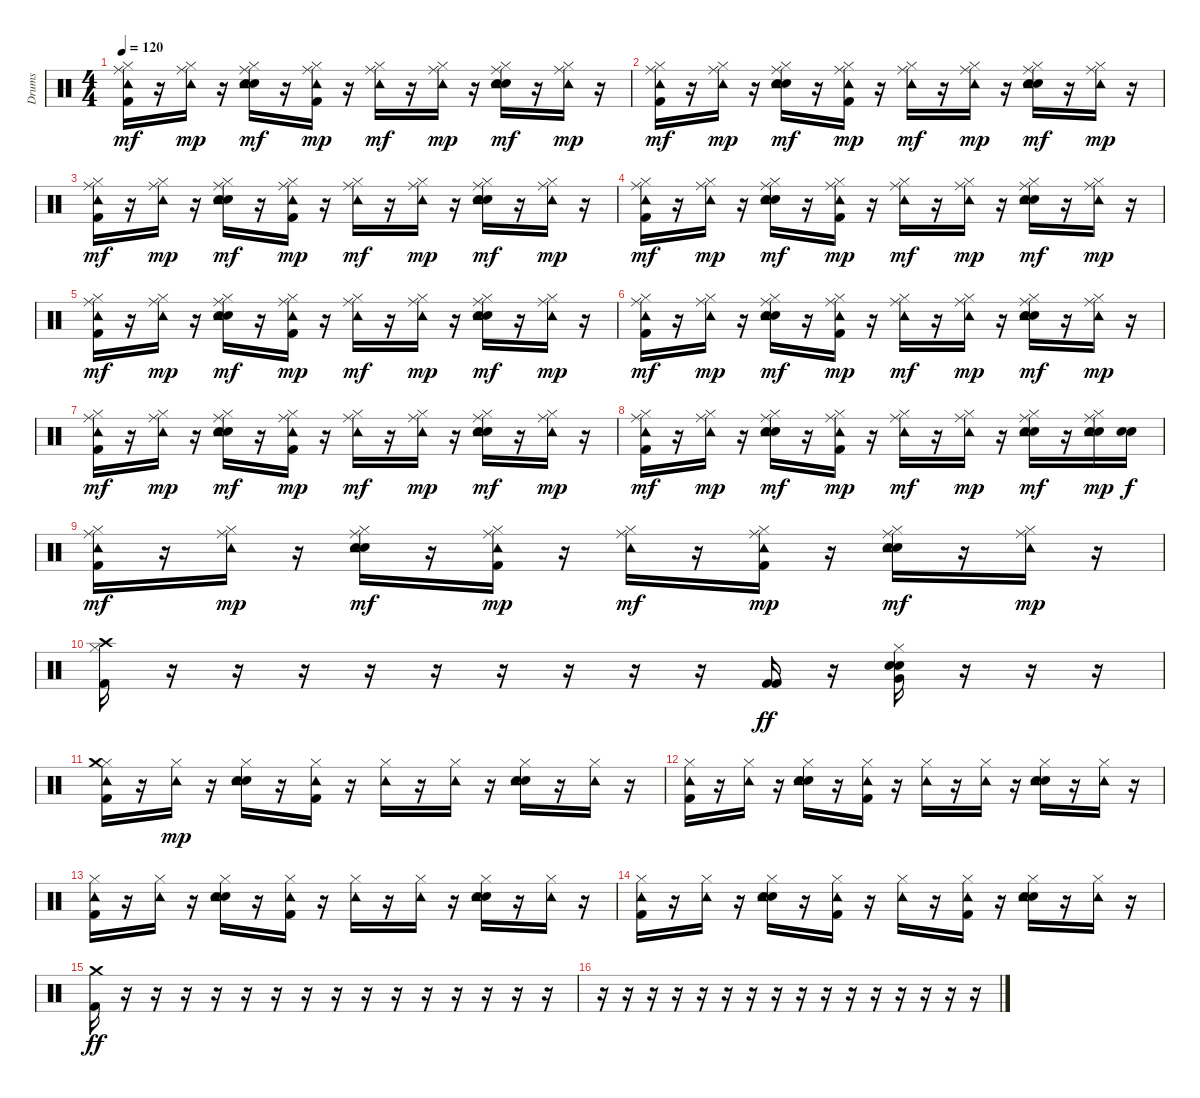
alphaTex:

\track ("Drums" "Drums") {instrument percussion}
\staff {score}
\articulation defaults
\ts (4 4)
\tempo 120
\clef neutral
\ks c
("Hi-Hat (closed)" "Ride (middle)" "Tambourine (hit)" "Kick (hit) 2").16{dy mf} r.16 ("Hi-Hat (closed)" "Ride (middle)" "Tambourine (hit)").16{dy mp} r.16 ("Hi-Hat (closed)" "Ride (middle)" "Snare (hit) 2" "Electric Snare (hit)" "Tambourine (hit)").16{dy mf} r.16 ("Hi-Hat (closed)" "Ride (middle)" "Tambourine (hit)" "Kick (hit) 2").16{dy mp} r.16 ("Hi-Hat (closed)" "Ride (middle)" "Tambourine (hit)").16{dy mf} r.16 ("Hi-Hat (closed)" "Ride (middle)" "Tambourine (hit)").16{dy mp} r.16 ("Hi-Hat (closed)" "Ride (middle)" "Snare (hit) 2" "Electric Snare (hit)" "Tambourine (hit)").16{dy mf} r.16 ("Hi-Hat (closed)" "Ride (middle)" "Tambourine (hit)").16{dy mp} r.16 |
("Hi-Hat (closed)" "Ride (middle)" "Tambourine (hit)" "Kick (hit) 2").16{dy mf} r.16 ("Hi-Hat (closed)" "Ride (middle)" "Tambourine (hit)").16{dy mp} r.16 ("Hi-Hat (closed)" "Ride (middle)" "Snare (hit) 2" "Electric Snare (hit)" "Tambourine (hit)").16{dy mf} r.16 ("Hi-Hat (closed)" "Ride (middle)" "Tambourine (hit)" "Kick (hit) 2").16{dy mp} r.16 ("Hi-Hat (closed)" "Ride (middle)" "Tambourine (hit)").16{dy mf} r.16 ("Hi-Hat (closed)" "Ride (middle)" "Tambourine (hit)").16{dy mp} r.16 ("Hi-Hat (closed)" "Ride (middle)" "Snare (hit) 2" "Electric Snare (hit)" "Tambourine (hit)").16{dy mf} r.16 ("Hi-Hat (closed)" "Ride (middle)" "Tambourine (hit)").16{dy mp} r.16 |
("Hi-Hat (closed)" "Ride (middle)" "Tambourine (hit)" "Kick (hit) 2").16{dy mf} r.16 ("Hi-Hat (closed)" "Ride (middle)" "Tambourine (hit)").16{dy mp} r.16 ("Hi-Hat (closed)" "Ride (middle)" "Snare (hit) 2" "Electric Snare (hit)" "Tambourine (hit)").16{dy mf} r.16 ("Hi-Hat (closed)" "Ride (middle)" "Tambourine (hit)" "Kick (hit) 2").16{dy mp} r.16 ("Hi-Hat (closed)" "Ride (middle)" "Tambourine (hit)").16{dy mf} r.16 ("Hi-Hat (closed)" "Ride (middle)" "Tambourine (hit)").16{dy mp} r.16 ("Hi-Hat (closed)" "Ride (middle)" "Snare (hit) 2" "Electric Snare (hit)" "Tambourine (hit)").16{dy mf} r.16 ("Hi-Hat (closed)" "Ride (middle)" "Tambourine (hit)").16{dy mp} r.16 |
("Hi-Hat (closed)" "Ride (middle)" "Tambourine (hit)" "Kick (hit) 2").16{dy mf} r.16 ("Hi-Hat (closed)" "Ride (middle)" "Tambourine (hit)").16{dy mp} r.16 ("Hi-Hat (closed)" "Ride (middle)" "Snare (hit) 2" "Electric Snare (hit)" "Tambourine (hit)").16{dy mf} r.16 ("Hi-Hat (closed)" "Ride (middle)" "Tambourine (hit)" "Kick (hit) 2").16{dy mp} r.16 ("Hi-Hat (closed)" "Ride (middle)" "Tambourine (hit)").16{dy mf} r.16 ("Hi-Hat (closed)" "Ride (middle)" "Tambourine (hit)").16{dy mp} r.16 ("Hi-Hat (closed)" "Ride (middle)" "Snare (hit) 2" "Electric Snare (hit)" "Tambourine (hit)").16{dy mf} r.16 ("Hi-Hat (closed)" "Ride (middle)" "Tambourine (hit)").16{dy mp} r.16 |
("Hi-Hat (closed)" "Ride (middle)" "Tambourine (hit)" "Kick (hit) 2").16{dy mf} r.16 ("Hi-Hat (closed)" "Ride (middle)" "Tambourine (hit)").16{dy mp} r.16 ("Hi-Hat (closed)" "Ride (middle)" "Snare (hit) 2" "Electric Snare (hit)" "Tambourine (hit)").16{dy mf} r.16 ("Hi-Hat (closed)" "Ride (middle)" "Tambourine (hit)" "Kick (hit) 2").16{dy mp} r.16 ("Hi-Hat (closed)" "Ride (middle)" "Tambourine (hit)").16{dy mf} r.16 ("Hi-Hat (closed)" "Ride (middle)" "Tambourine (hit)").16{dy mp} r.16 ("Hi-Hat (closed)" "Ride (middle)" "Snare (hit) 2" "Electric Snare (hit)" "Tambourine (hit)").16{dy mf} r.16 ("Hi-Hat (closed)" "Ride (middle)" "Tambourine (hit)").16{dy mp} r.16 |
("Hi-Hat (closed)" "Ride (middle)" "Tambourine (hit)" "Kick (hit) 2").16{dy mf} r.16 ("Hi-Hat (closed)" "Ride (middle)" "Tambourine (hit)").16{dy mp} r.16 ("Hi-Hat (closed)" "Ride (middle)" "Snare (hit) 2" "Electric Snare (hit)" "Tambourine (hit)").16{dy mf} r.16 ("Hi-Hat (closed)" "Ride (middle)" "Tambourine (hit)" "Kick (hit) 2").16{dy mp} r.16 ("Hi-Hat (closed)" "Ride (middle)" "Tambourine (hit)").16{dy mf} r.16 ("Hi-Hat (closed)" "Ride (middle)" "Tambourine (hit)").16{dy mp} r.16 ("Hi-Hat (closed)" "Ride (middle)" "Snare (hit) 2" "Electric Snare (hit)" "Tambourine (hit)").16{dy mf} r.16 ("Hi-Hat (closed)" "Ride (middle)" "Tambourine (hit)").16{dy mp} r.16 |
("Hi-Hat (closed)" "Ride (middle)" "Tambourine (hit)" "Kick (hit) 2").16{dy mf} r.16 ("Hi-Hat (closed)" "Ride (middle)" "Tambourine (hit)").16{dy mp} r.16 ("Hi-Hat (closed)" "Ride (middle)" "Snare (hit) 2" "Electric Snare (hit)" "Tambourine (hit)").16{dy mf} r.16 ("Hi-Hat (closed)" "Ride (middle)" "Tambourine (hit)" "Kick (hit) 2").16{dy mp} r.16 ("Hi-Hat (closed)" "Ride (middle)" "Tambourine (hit)").16{dy mf} r.16 ("Hi-Hat (closed)" "Ride (middle)" "Tambourine (hit)").16{dy mp} r.16 ("Hi-Hat (closed)" "Ride (middle)" "Snare (hit) 2" "Electric Snare (hit)" "Tambourine (hit)").16{dy mf} r.16 ("Hi-Hat (closed)" "Ride (middle)" "Tambourine (hit)").16{dy mp} r.16 |
("Hi-Hat (closed)" "Ride (middle)" "Tambourine (hit)" "Kick (hit) 2").16{dy mf} r.16 ("Hi-Hat (closed)" "Ride (middle)" "Tambourine (hit)").16{dy mp} r.16 ("Hi-Hat (closed)" "Ride (middle)" "Snare (hit) 2" "Electric Snare (hit)" "Tambourine (hit)").16{dy mf} r.16 ("Hi-Hat (closed)" "Ride (middle)" "Tambourine (hit)" "Kick (hit) 2").16{dy mp} r.16 ("Hi-Hat (closed)" "Ride (middle)" "Tambourine (hit)").16{dy mf} r.16 ("Hi-Hat (closed)" "Ride (middle)" "Tambourine (hit)").16{dy mp} r.16 ("Hi-Hat (closed)" "Ride (middle)" "Snare (hit) 2" "Electric Snare (hit)" "Tambourine (hit)").16{dy mf} r.16 ("Hi-Hat (closed)" "Ride (middle)" "Snare (hit) 2" "Electric Snare (hit)" "Tambourine (hit)").16{dy mp} ("Snare (hit) 2" "Electric Snare (hit)").16{dy f} |
("Hi-Hat (closed)" "Ride (middle)" "Tambourine (hit)" "Kick (hit) 2").16{dy mf} r.16 ("Hi-Hat (closed)" "Ride (middle)" "Tambourine (hit)").16{dy mp} r.16 ("Hi-Hat (closed)" "Ride (middle)" "Snare (hit) 2" "Electric Snare (hit)" "Tambourine (hit)").16{dy mf} r.16 ("Hi-Hat (closed)" "Ride (middle)" "Tambourine (hit)" "Kick (hit) 2").16{dy mp} r.16 ("Hi-Hat (closed)" "Ride (middle)" "Tambourine (hit)").16{dy mf} r.16 ("Hi-Hat (closed)" "Ride (middle)" "Tambourine (hit)" "Kick (hit) 2").16{dy mp} r.16 ("Hi-Hat (closed)" "Ride (middle)" "Snare (hit) 2" "Electric Snare (hit)" "Tambourine (hit)").16{dy mf} r.16 ("Hi-Hat (closed)" "Ride (middle)" "Tambourine (hit)").16{dy mp} r.16 |
("Hi-Hat (closed)" "Crash high (hit)" "Kick (hit) 2").16 r.16 r.16 r.16 r.16 r.16 r.16 r.16 r.16 r.16 ("Kick (hit) 2" "Kick (hit) 2").16{dy ff} r.16 ("Hi-Hat (closed)" "Very Low Tom (hit)" "Snare (hit) 2" "Electric Snare (hit)").16 r.16 r.16 r.16 |
("Hi-Hat (closed)" "Crash medium (hit)" "Tambourine (hit)" "Kick (hit) 2").16 r.16 ("Hi-Hat (closed)" "Tambourine (hit)").16{dy mp} r.16 ("Hi-Hat (closed)" "Snare (hit) 2" "Electric Snare (hit)" "Tambourine (hit)").16 r.16 ("Hi-Hat (closed)" "Tambourine (hit)" "Kick (hit) 2").16 r.16 ("Hi-Hat (closed)" "Tambourine (hit)").16 r.16 ("Hi-Hat (closed)" "Tambourine (hit)").16 r.16 ("Hi-Hat (closed)" "Snare (hit) 2" "Electric Snare (hit)" "Tambourine (hit)").16 r.16 ("Hi-Hat (closed)" "Tambourine (hit)").16 r.16 |
("Hi-Hat (closed)" "Tambourine (hit)" "Kick (hit) 2").16 r.16 ("Hi-Hat (closed)" "Tambourine (hit)").16 r.16 ("Hi-Hat (closed)" "Snare (hit) 2" "Electric Snare (hit)" "Tambourine (hit)").16 r.16 ("Hi-Hat (closed)" "Tambourine (hit)" "Kick (hit) 2").16 r.16 ("Hi-Hat (closed)" "Tambourine (hit)").16 r.16 ("Hi-Hat (closed)" "Tambourine (hit)").16 r.16 ("Hi-Hat (closed)" "Snare (hit) 2" "Electric Snare (hit)" "Tambourine (hit)").16 r.16 ("Hi-Hat (closed)" "Tambourine (hit)").16 r.16 |
("Hi-Hat (closed)" "Tambourine (hit)" "Kick (hit) 2").16 r.16 ("Hi-Hat (closed)" "Tambourine (hit)").16 r.16 ("Hi-Hat (closed)" "Snare (hit) 2" "Electric Snare (hit)" "Tambourine (hit)").16 r.16 ("Hi-Hat (closed)" "Tambourine (hit)" "Kick (hit) 2").16 r.16 ("Hi-Hat (closed)" "Tambourine (hit)").16 r.16 ("Hi-Hat (closed)" "Tambourine (hit)").16 r.16 ("Hi-Hat (closed)" "Snare (hit) 2" "Electric Snare (hit)" "Tambourine (hit)").16 r.16 ("Hi-Hat (closed)" "Tambourine (hit)").16 r.16 |
("Hi-Hat (closed)" "Tambourine (hit)" "Kick (hit) 2").16 r.16 ("Hi-Hat (closed)" "Tambourine (hit)").16 r.16 ("Hi-Hat (closed)" "Snare (hit) 2" "Electric Snare (hit)" "Tambourine (hit)").16 r.16 ("Hi-Hat (closed)" "Tambourine (hit)" "Kick (hit) 2").16 r.16 ("Hi-Hat (closed)" "Tambourine (hit)").16 r.16 ("Hi-Hat (closed)" "Tambourine (hit)" "Kick (hit) 2").16 r.16 ("Hi-Hat (closed)" "Snare (hit) 2" "Electric Snare (hit)" "Tambourine (hit)").16 r.16 ("Hi-Hat (closed)" "Tambourine (hit)").16 r.16 |
("Crash medium (hit)" "Kick (hit) 2").16{dy ff} r.16 r.16 r.16 r.16 r.16 r.16 r.16 r.16 r.16 r.16 r.16 r.16 r.16 r.16 r.16 |
r.16 r.16 r.16 r.16 r.16 r.16 r.16 r.16 r.16 r.16 r.16 r.16 r.16 r.16 r.16 r.16
